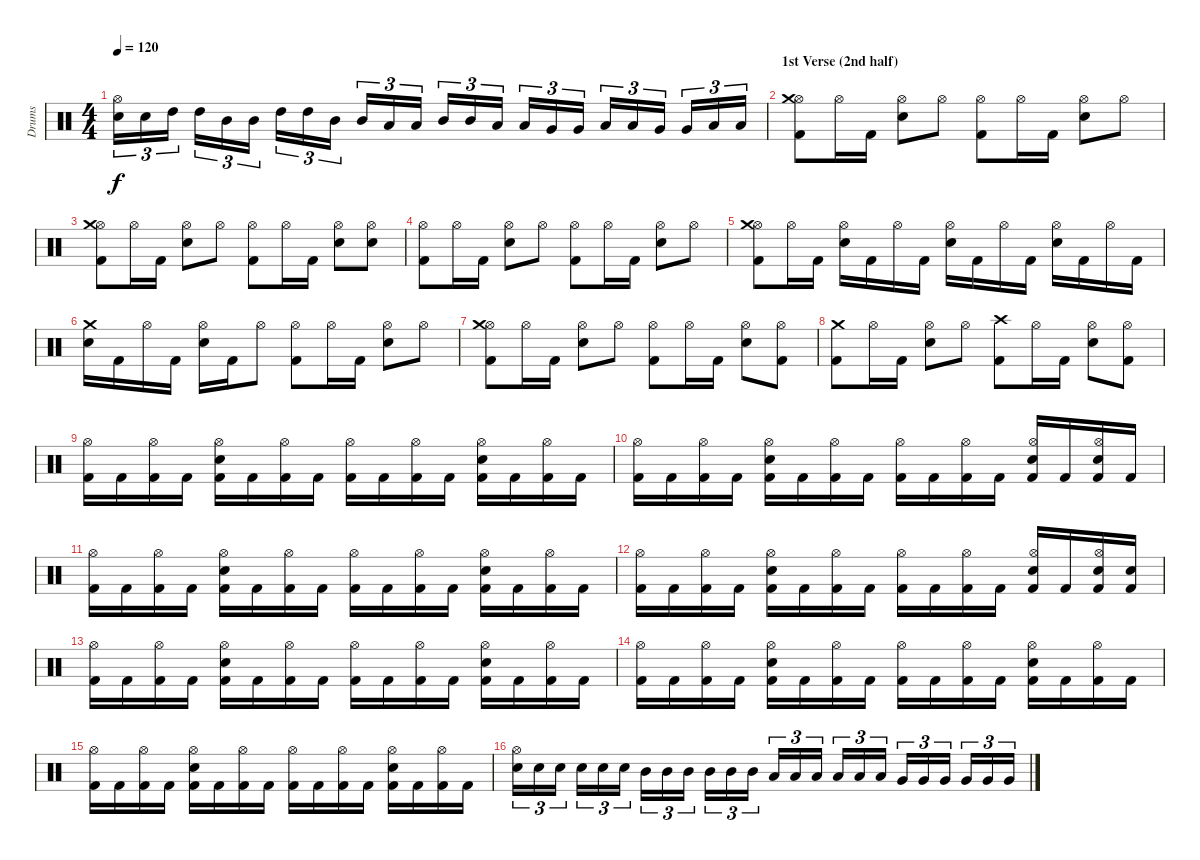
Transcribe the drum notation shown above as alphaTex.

\track ("Drums" "Drums") {instrument percussion}
\staff {score}
\articulation defaults
\ts (4 4)
\tempo 120
\clef neutral
\ks c
("Electric Snare (hit)" "Hi-Hat (open)").16{tu (3 2) dy f} "Electric Snare (hit)".16{tu (3 2)} "High Tom (hit)".16{tu (3 2)} "High Tom (hit)".16{tu (3 2)} "Mid Tom (hit)".16{tu (3 2)} "Mid Tom (hit)".16{tu (3 2)} "High Tom (hit)".16{tu (3 2)} "High Tom (hit)".16{tu (3 2)} "Mid Tom (hit)".16{tu (3 2)} "Mid Tom (hit)".16{tu (3 2)} "Low Tom (hit)".16{tu (3 2)} "Low Tom (hit)".16{tu (3 2)} "Mid Tom (hit)".16{tu (3 2)} "Mid Tom (hit)".16{tu (3 2)} "Low Tom (hit)".16{tu (3 2)} "Low Tom (hit)".16{tu (3 2)} "Very Low Tom (hit)".16{tu (3 2)} "Very Low Tom (hit)".16{tu (3 2)} "Low Tom (hit)".16{tu (3 2)} "Low Tom (hit)".16{tu (3 2)} "Very Low Tom (hit)".16{tu (3 2)} "Very Low Tom (hit)".16{tu (3 2)} "Low Floor Tom (hit)".16{tu (3 2)} "Low Floor Tom (hit)".16{tu (3 2)} |
\section ("" "1st Verse (2nd half)")
("Kick (hit) 2" "Hi-Hat (open)" "Crash medium (hit)").8 "Hi-Hat (open)".16 "Kick (hit) 2".16 ("Electric Snare (hit)" "Hi-Hat (open)").8 "Hi-Hat (open)".8 ("Kick (hit) 2" "Hi-Hat (open)").8 "Hi-Hat (open)".16 "Kick (hit) 2".16 ("Electric Snare (hit)" "Hi-Hat (open)").8 "Hi-Hat (open)".8 |
("Kick (hit) 2" "Hi-Hat (open)" "Crash medium (hit)").8 "Hi-Hat (open)".16 "Kick (hit) 2".16 ("Electric Snare (hit)" "Hi-Hat (open)").8 "Hi-Hat (open)".8 ("Kick (hit) 2" "Hi-Hat (open)").8 "Hi-Hat (open)".16 "Kick (hit) 2".16 ("Electric Snare (hit)" "Hi-Hat (open)").8 ("Electric Snare (hit)" "Hi-Hat (open)").8 |
("Kick (hit) 2" "Hi-Hat (open)").8 "Hi-Hat (open)".16 "Kick (hit) 2".16 ("Electric Snare (hit)" "Hi-Hat (open)").8 "Hi-Hat (open)".8 ("Kick (hit) 2" "Hi-Hat (open)").8 "Hi-Hat (open)".16 "Kick (hit) 2".16 ("Electric Snare (hit)" "Hi-Hat (open)").8 "Hi-Hat (open)".8 |
("Kick (hit) 2" "Hi-Hat (open)" "Crash medium (hit)").8 "Hi-Hat (open)".16 "Kick (hit) 2".16 ("Electric Snare (hit)" "Hi-Hat (open)").16 "Kick (hit) 2".16 "Hi-Hat (open)".16 "Kick (hit) 2".16 ("Electric Snare (hit)" "Hi-Hat (open)").16 "Kick (hit) 2".16 "Hi-Hat (open)".16 "Kick (hit) 2".16 ("Electric Snare (hit)" "Hi-Hat (open)").16 "Kick (hit) 2".16 "Hi-Hat (open)".16 "Kick (hit) 2".16 |
("Electric Snare (hit)" "Crash medium (hit)").16 "Kick (hit) 2".16 "Hi-Hat (open)".16 "Kick (hit) 2".16 ("Electric Snare (hit)" "Hi-Hat (open)").16 "Kick (hit) 2".16 "Hi-Hat (open)".8 ("Kick (hit) 2" "Hi-Hat (open)").8 "Hi-Hat (open)".16 "Kick (hit) 2".16 ("Electric Snare (hit)" "Hi-Hat (open)").8 "Hi-Hat (open)".8 |
("Kick (hit) 2" "Hi-Hat (open)" "Crash medium (hit)").8 "Hi-Hat (open)".16 "Kick (hit) 2".16 ("Electric Snare (hit)" "Hi-Hat (open)").8 "Hi-Hat (open)".8 ("Kick (hit) 2" "Hi-Hat (open)").8 "Hi-Hat (open)".16 "Kick (hit) 2".16 ("Electric Snare (hit)" "Hi-Hat (open)").8 ("Kick (hit) 2" "Hi-Hat (open)").8 |
("Kick (hit) 2" "Crash medium (hit)").8 "Hi-Hat (open)".16 "Kick (hit) 2".16 ("Electric Snare (hit)" "Hi-Hat (open)").8 "Hi-Hat (open)".8 ("Kick (hit) 2" "Crash high (hit)").8 "Hi-Hat (open)".16 "Kick (hit) 2".16 ("Electric Snare (hit)" "Hi-Hat (open)").8 ("Kick (hit) 2" "Hi-Hat (open)").8 |
("Kick (hit) 2" "Hi-Hat (open)").16 "Kick (hit) 2".16 ("Kick (hit) 2" "Hi-Hat (open)").16 "Kick (hit) 2".16 ("Kick (hit) 2" "Electric Snare (hit)" "Hi-Hat (open)").16 "Kick (hit) 2".16 ("Kick (hit) 2" "Hi-Hat (open)").16 "Kick (hit) 2".16 ("Kick (hit) 2" "Hi-Hat (open)").16 "Kick (hit) 2".16 ("Kick (hit) 2" "Hi-Hat (open)").16 "Kick (hit) 2".16 ("Kick (hit) 2" "Electric Snare (hit)" "Hi-Hat (open)").16 "Kick (hit) 2".16 ("Kick (hit) 2" "Hi-Hat (open)").16 "Kick (hit) 2".16 |
("Kick (hit) 2" "Hi-Hat (open)").16 "Kick (hit) 2".16 ("Kick (hit) 2" "Hi-Hat (open)").16 "Kick (hit) 2".16 ("Kick (hit) 2" "Electric Snare (hit)" "Hi-Hat (open)").16 "Kick (hit) 2".16 ("Kick (hit) 2" "Hi-Hat (open)").16 "Kick (hit) 2".16 ("Kick (hit) 2" "Hi-Hat (open)").16 "Kick (hit) 2".16 ("Kick (hit) 2" "Hi-Hat (open)").16 "Kick (hit) 2".16 ("Kick (hit) 2" "Electric Snare (hit)" "Hi-Hat (open)").16 "Kick (hit) 2".16 ("Kick (hit) 2" "Electric Snare (hit)" "Hi-Hat (open)").16 "Kick (hit) 2".16 |
("Kick (hit) 2" "Hi-Hat (open)").16 "Kick (hit) 2".16 ("Kick (hit) 2" "Hi-Hat (open)").16 "Kick (hit) 2".16 ("Kick (hit) 2" "Electric Snare (hit)" "Hi-Hat (open)").16 "Kick (hit) 2".16 ("Kick (hit) 2" "Hi-Hat (open)").16 "Kick (hit) 2".16 ("Kick (hit) 2" "Hi-Hat (open)").16 "Kick (hit) 2".16 ("Kick (hit) 2" "Hi-Hat (open)").16 "Kick (hit) 2".16 ("Kick (hit) 2" "Electric Snare (hit)" "Hi-Hat (open)").16 "Kick (hit) 2".16 ("Kick (hit) 2" "Hi-Hat (open)").16 "Kick (hit) 2".16 |
("Kick (hit) 2" "Hi-Hat (open)").16 "Kick (hit) 2".16 ("Kick (hit) 2" "Hi-Hat (open)").16 "Kick (hit) 2".16 ("Kick (hit) 2" "Electric Snare (hit)" "Hi-Hat (open)").16 "Kick (hit) 2".16 ("Kick (hit) 2" "Hi-Hat (open)").16 "Kick (hit) 2".16 ("Kick (hit) 2" "Hi-Hat (open)").16 "Kick (hit) 2".16 ("Kick (hit) 2" "Hi-Hat (open)").16 "Kick (hit) 2".16 ("Kick (hit) 2" "Electric Snare (hit)" "Hi-Hat (open)").16 "Kick (hit) 2".16 ("Kick (hit) 2" "Electric Snare (hit)" "Hi-Hat (open)").16 ("Kick (hit) 2" "Electric Snare (hit)").16 |
("Kick (hit) 2" "Hi-Hat (open)").16 "Kick (hit) 2".16 ("Kick (hit) 2" "Hi-Hat (open)").16 "Kick (hit) 2".16 ("Kick (hit) 2" "Electric Snare (hit)" "Hi-Hat (open)").16 "Kick (hit) 2".16 ("Kick (hit) 2" "Hi-Hat (open)").16 "Kick (hit) 2".16 ("Kick (hit) 2" "Hi-Hat (open)").16 "Kick (hit) 2".16 ("Kick (hit) 2" "Hi-Hat (open)").16 "Kick (hit) 2".16 ("Kick (hit) 2" "Electric Snare (hit)" "Hi-Hat (open)").16 "Kick (hit) 2".16 ("Kick (hit) 2" "Hi-Hat (open)").16 "Kick (hit) 2".16 |
("Kick (hit) 2" "Hi-Hat (open)").16 "Kick (hit) 2".16 ("Kick (hit) 2" "Hi-Hat (open)").16 "Kick (hit) 2".16 ("Kick (hit) 2" "Electric Snare (hit)" "Hi-Hat (open)").16 "Kick (hit) 2".16 ("Kick (hit) 2" "Hi-Hat (open)").16 "Kick (hit) 2".16 ("Kick (hit) 2" "Hi-Hat (open)").16 "Kick (hit) 2".16 ("Kick (hit) 2" "Hi-Hat (open)").16 "Kick (hit) 2".16 ("Kick (hit) 2" "Electric Snare (hit)" "Hi-Hat (open)").16 "Kick (hit) 2".16 ("Kick (hit) 2" "Hi-Hat (open)").16 "Kick (hit) 2".16 |
("Kick (hit) 2" "Hi-Hat (open)").16 "Kick (hit) 2".16 ("Kick (hit) 2" "Hi-Hat (open)").16 "Kick (hit) 2".16 ("Kick (hit) 2" "Electric Snare (hit)" "Hi-Hat (open)").16 "Kick (hit) 2".16 ("Kick (hit) 2" "Hi-Hat (open)").16 "Kick (hit) 2".16 ("Kick (hit) 2" "Hi-Hat (open)").16 "Kick (hit) 2".16 ("Kick (hit) 2" "Hi-Hat (open)").16 "Kick (hit) 2".16 ("Kick (hit) 2" "Electric Snare (hit)" "Hi-Hat (open)").16 "Kick (hit) 2".16 ("Kick (hit) 2" "Hi-Hat (open)").16 "Kick (hit) 2".16 |
("Electric Snare (hit)" "Hi-Hat (open)").16{tu (3 2)} "Electric Snare (hit)".16{tu (3 2)} "Electric Snare (hit)".16{tu (3 2)} "Electric Snare (hit)".16{tu (3 2)} "Electric Snare (hit)".16{tu (3 2)} "Electric Snare (hit)".16{tu (3 2)} "Mid Tom (hit)".16{tu (3 2)} "Mid Tom (hit)".16{tu (3 2)} "Mid Tom (hit)".16{tu (3 2)} "Mid Tom (hit)".16{tu (3 2)} "Mid Tom (hit)".16{tu (3 2)} "Mid Tom (hit)".16{tu (3 2)} "Low Tom (hit)".16{tu (3 2)} "Low Tom (hit)".16{tu (3 2)} "Low Tom (hit)".16{tu (3 2)} "Low Tom (hit)".16{tu (3 2)} "Low Tom (hit)".16{tu (3 2)} "Low Tom (hit)".16{tu (3 2)} "Very Low Tom (hit)".16{tu (3 2)} "Very Low Tom (hit)".16{tu (3 2)} "Very Low Tom (hit)".16{tu (3 2)} "Very Low Tom (hit)".16{tu (3 2)} "Very Low Tom (hit)".16{tu (3 2)} "Very Low Tom (hit)".16{tu (3 2)}
